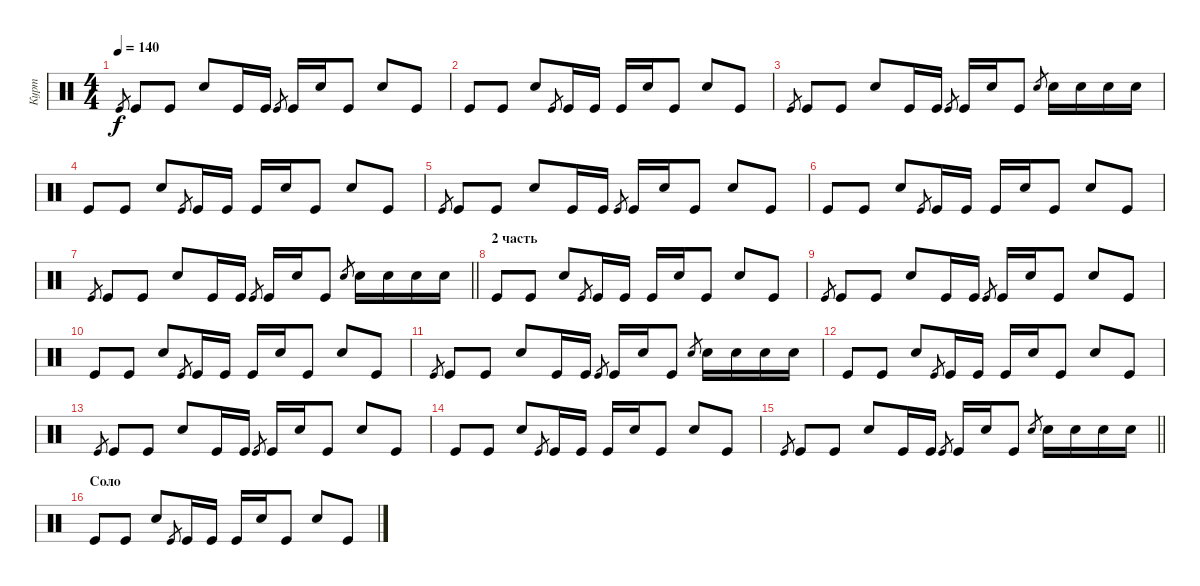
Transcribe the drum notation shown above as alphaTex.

\track ("Курт" "Курт") {instrument percussion}
\staff {score}
\articulation defaults
\ts (4 4)
\tempo 140
\clef neutral
\ks c "Kick (hit)".8{gr dy f} "Kick (hit)".8 "Kick (hit)".8 "Snare (hit) 2".8 "Kick (hit)".16 "Kick (hit)".16 "Kick (hit)".8{gr} "Kick (hit)".16 "Snare (hit) 2".16 "Kick (hit)".8 "Snare (hit) 2".8 "Kick (hit)".8
|
"Kick (hit)".8 "Kick (hit)".8 "Snare (hit) 2".8 "Kick (hit)".8{gr} "Kick (hit)".16 "Kick (hit)".16 "Kick (hit)".16 "Snare (hit) 2".16 "Kick (hit)".8 "Snare (hit) 2".8 "Kick (hit)".8 |
"Kick (hit)".8{gr} "Kick (hit)".8 "Kick (hit)".8 "Snare (hit) 2".8 "Kick (hit)".16 "Kick (hit)".16 "Kick (hit)".8{gr} "Kick (hit)".16 "Snare (hit) 2".16 "Kick (hit)".8 "Snare (hit) 2".8{gr} "Snare (hit) 2".16 "Snare (hit) 2".16 "Snare (hit) 2".16 "Snare (hit) 2".16 |
"Kick (hit)".8 "Kick (hit)".8 "Snare (hit) 2".8 "Kick (hit)".8{gr} "Kick (hit)".16 "Kick (hit)".16 "Kick (hit)".16 "Snare (hit) 2".16 "Kick (hit)".8 "Snare (hit) 2".8 "Kick (hit)".8 |
"Kick (hit)".8{gr} "Kick (hit)".8 "Kick (hit)".8 "Snare (hit) 2".8 "Kick (hit)".16 "Kick (hit)".16 "Kick (hit)".8{gr} "Kick (hit)".16 "Snare (hit) 2".16 "Kick (hit)".8 "Snare (hit) 2".8 "Kick (hit)".8 |
"Kick (hit)".8 "Kick (hit)".8 "Snare (hit) 2".8 "Kick (hit)".8{gr} "Kick (hit)".16 "Kick (hit)".16 "Kick (hit)".16 "Snare (hit) 2".16 "Kick (hit)".8 "Snare (hit) 2".8 "Kick (hit)".8 |
\barLineRight lightlight "Kick (hit)".8{gr} "Kick (hit)".8 "Kick (hit)".8 "Snare (hit) 2".8 "Kick (hit)".16 "Kick (hit)".16 "Kick (hit)".8{gr} "Kick (hit)".16 "Snare (hit) 2".16 "Kick (hit)".8 "Snare (hit) 2".8{gr} "Snare (hit) 2".16 "Snare (hit) 2".16 "Snare (hit) 2".16 "Snare (hit) 2".16
|
\section ("" "2 часть")
"Kick (hit)".8 "Kick (hit)".8 "Snare (hit) 2".8 "Kick (hit)".8{gr} "Kick (hit)".16 "Kick (hit)".16 "Kick (hit)".16 "Snare (hit) 2".16 "Kick (hit)".8 "Snare (hit) 2".8 "Kick (hit)".8 |
"Kick (hit)".8{gr} "Kick (hit)".8 "Kick (hit)".8 "Snare (hit) 2".8 "Kick (hit)".16 "Kick (hit)".16 "Kick (hit)".8{gr} "Kick (hit)".16 "Snare (hit) 2".16 "Kick (hit)".8 "Snare (hit) 2".8 "Kick (hit)".8 |
"Kick (hit)".8 "Kick (hit)".8 "Snare (hit) 2".8 "Kick (hit)".8{gr} "Kick (hit)".16 "Kick (hit)".16 "Kick (hit)".16 "Snare (hit) 2".16 "Kick (hit)".8 "Snare (hit) 2".8 "Kick (hit)".8 |
"Kick (hit)".8{gr} "Kick (hit)".8 "Kick (hit)".8 "Snare (hit) 2".8 "Kick (hit)".16 "Kick (hit)".16 "Kick (hit)".8{gr} "Kick (hit)".16 "Snare (hit) 2".16 "Kick (hit)".8 "Snare (hit) 2".8{gr} "Snare (hit) 2".16 "Snare (hit) 2".16 "Snare (hit) 2".16 "Snare (hit) 2".16 |
"Kick (hit)".8 "Kick (hit)".8 "Snare (hit) 2".8 "Kick (hit)".8{gr} "Kick (hit)".16 "Kick (hit)".16 "Kick (hit)".16 "Snare (hit) 2".16 "Kick (hit)".8 "Snare (hit) 2".8 "Kick (hit)".8 |
"Kick (hit)".8{gr} "Kick (hit)".8 "Kick (hit)".8 "Snare (hit) 2".8 "Kick (hit)".16 "Kick (hit)".16 "Kick (hit)".8{gr} "Kick (hit)".16 "Snare (hit) 2".16 "Kick (hit)".8 "Snare (hit) 2".8 "Kick (hit)".8 |
"Kick (hit)".8 "Kick (hit)".8 "Snare (hit) 2".8 "Kick (hit)".8{gr} "Kick (hit)".16 "Kick (hit)".16 "Kick (hit)".16 "Snare (hit) 2".16 "Kick (hit)".8 "Snare (hit) 2".8 "Kick (hit)".8 |
\barLineRight lightlight "Kick (hit)".8{gr} "Kick (hit)".8 "Kick (hit)".8 "Snare (hit) 2".8 "Kick (hit)".16 "Kick (hit)".16 "Kick (hit)".8{gr} "Kick (hit)".16 "Snare (hit) 2".16 "Kick (hit)".8 "Snare (hit) 2".8{gr} "Snare (hit) 2".16 "Snare (hit) 2".16 "Snare (hit) 2".16 "Snare (hit) 2".16
|
\section ("" "Соло")
"Kick (hit)".8 "Kick (hit)".8 "Snare (hit) 2".8 "Kick (hit)".8{gr} "Kick (hit)".16 "Kick (hit)".16 "Kick (hit)".16 "Snare (hit) 2".16 "Kick (hit)".8 "Snare (hit) 2".8 "Kick (hit)".8
